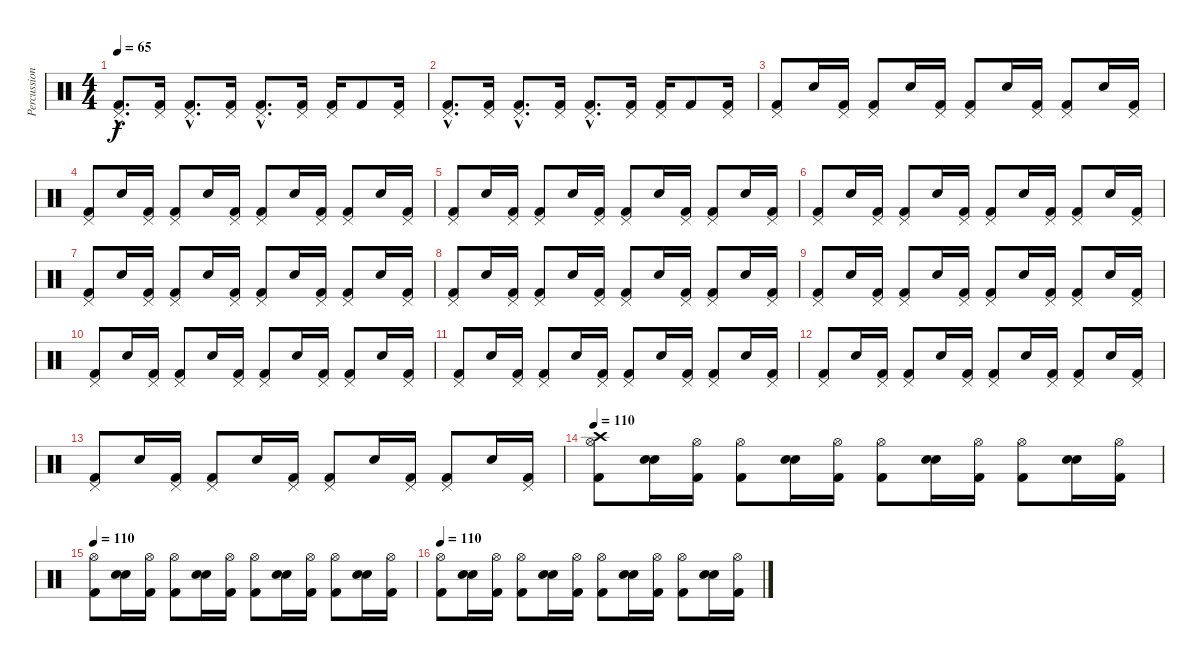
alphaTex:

\track ("Percussions" "Percussion") {instrument percussion}
\staff {score}
\articulation defaults
\ts (4 4)
\tempo 65
\clef neutral
\ks c
("Kick (hit) 2"{hac} "Pedal Hi-Hat (hit)"{hac}).8{d dy f} ("Kick (hit) 2" "Pedal Hi-Hat (hit)").16 ("Kick (hit) 2"{hac} "Pedal Hi-Hat (hit)"{hac}).8{d} ("Kick (hit) 2" "Pedal Hi-Hat (hit)").16 ("Kick (hit) 2"{hac} "Pedal Hi-Hat (hit)"{hac}).8{d} ("Kick (hit) 2" "Pedal Hi-Hat (hit)").16 ("Kick (hit) 2" "Pedal Hi-Hat (hit)").16 "Kick (hit) 2".8 ("Kick (hit) 2" "Pedal Hi-Hat (hit)").16 |
("Kick (hit) 2"{hac} "Pedal Hi-Hat (hit)"{hac}).8{d} ("Kick (hit) 2" "Pedal Hi-Hat (hit)").16 ("Kick (hit) 2"{hac} "Pedal Hi-Hat (hit)"{hac}).8{d} ("Kick (hit) 2" "Pedal Hi-Hat (hit)").16 ("Kick (hit) 2"{hac} "Pedal Hi-Hat (hit)"{hac}).8{d} ("Kick (hit) 2" "Pedal Hi-Hat (hit)").16 ("Kick (hit) 2" "Pedal Hi-Hat (hit)").16 "Kick (hit) 2".8 ("Kick (hit) 2" "Pedal Hi-Hat (hit)").16 |
("Kick (hit) 2" "Pedal Hi-Hat (hit)").8 "Electric Snare (hit)".16 ("Kick (hit) 2" "Pedal Hi-Hat (hit)").16 ("Kick (hit) 2" "Pedal Hi-Hat (hit)").8 "Electric Snare (hit)".16 ("Kick (hit) 2" "Pedal Hi-Hat (hit)").16 ("Kick (hit) 2" "Pedal Hi-Hat (hit)").8 "Electric Snare (hit)".16 ("Kick (hit) 2" "Pedal Hi-Hat (hit)").16 ("Kick (hit) 2" "Pedal Hi-Hat (hit)").8 "Electric Snare (hit)".16 ("Kick (hit) 2" "Pedal Hi-Hat (hit)").16 |
("Kick (hit) 2" "Pedal Hi-Hat (hit)").8 "Electric Snare (hit)".16 ("Kick (hit) 2" "Pedal Hi-Hat (hit)").16 ("Kick (hit) 2" "Pedal Hi-Hat (hit)").8 "Electric Snare (hit)".16 ("Kick (hit) 2" "Pedal Hi-Hat (hit)").16 ("Kick (hit) 2" "Pedal Hi-Hat (hit)").8 "Electric Snare (hit)".16 ("Kick (hit) 2" "Pedal Hi-Hat (hit)").16 ("Kick (hit) 2" "Pedal Hi-Hat (hit)").8 "Electric Snare (hit)".16 ("Kick (hit) 2" "Pedal Hi-Hat (hit)").16 |
("Kick (hit) 2" "Pedal Hi-Hat (hit)").8 "Electric Snare (hit)".16 ("Kick (hit) 2" "Pedal Hi-Hat (hit)").16 ("Kick (hit) 2" "Pedal Hi-Hat (hit)").8 "Electric Snare (hit)".16 ("Kick (hit) 2" "Pedal Hi-Hat (hit)").16 ("Kick (hit) 2" "Pedal Hi-Hat (hit)").8 "Electric Snare (hit)".16 ("Kick (hit) 2" "Pedal Hi-Hat (hit)").16 ("Kick (hit) 2" "Pedal Hi-Hat (hit)").8 "Electric Snare (hit)".16 ("Kick (hit) 2" "Pedal Hi-Hat (hit)").16 |
("Kick (hit) 2" "Pedal Hi-Hat (hit)").8 "Electric Snare (hit)".16 ("Kick (hit) 2" "Pedal Hi-Hat (hit)").16 ("Kick (hit) 2" "Pedal Hi-Hat (hit)").8 "Electric Snare (hit)".16 ("Kick (hit) 2" "Pedal Hi-Hat (hit)").16 ("Kick (hit) 2" "Pedal Hi-Hat (hit)").8 "Electric Snare (hit)".16 ("Kick (hit) 2" "Pedal Hi-Hat (hit)").16 ("Kick (hit) 2" "Pedal Hi-Hat (hit)").8 "Electric Snare (hit)".16 ("Kick (hit) 2" "Pedal Hi-Hat (hit)").16 |
("Kick (hit) 2" "Pedal Hi-Hat (hit)").8 "Electric Snare (hit)".16 ("Kick (hit) 2" "Pedal Hi-Hat (hit)").16 ("Kick (hit) 2" "Pedal Hi-Hat (hit)").8 "Electric Snare (hit)".16 ("Kick (hit) 2" "Pedal Hi-Hat (hit)").16 ("Kick (hit) 2" "Pedal Hi-Hat (hit)").8 "Electric Snare (hit)".16 ("Kick (hit) 2" "Pedal Hi-Hat (hit)").16 ("Kick (hit) 2" "Pedal Hi-Hat (hit)").8 "Electric Snare (hit)".16 ("Kick (hit) 2" "Pedal Hi-Hat (hit)").16 |
("Kick (hit) 2" "Pedal Hi-Hat (hit)").8 "Electric Snare (hit)".16 ("Kick (hit) 2" "Pedal Hi-Hat (hit)").16 ("Kick (hit) 2" "Pedal Hi-Hat (hit)").8 "Electric Snare (hit)".16 ("Kick (hit) 2" "Pedal Hi-Hat (hit)").16 ("Kick (hit) 2" "Pedal Hi-Hat (hit)").8 "Electric Snare (hit)".16 ("Kick (hit) 2" "Pedal Hi-Hat (hit)").16 ("Kick (hit) 2" "Pedal Hi-Hat (hit)").8 "Electric Snare (hit)".16 ("Kick (hit) 2" "Pedal Hi-Hat (hit)").16 |
("Kick (hit) 2" "Pedal Hi-Hat (hit)").8 "Electric Snare (hit)".16 ("Kick (hit) 2" "Pedal Hi-Hat (hit)").16 ("Kick (hit) 2" "Pedal Hi-Hat (hit)").8 "Electric Snare (hit)".16 ("Kick (hit) 2" "Pedal Hi-Hat (hit)").16 ("Kick (hit) 2" "Pedal Hi-Hat (hit)").8 "Electric Snare (hit)".16 ("Kick (hit) 2" "Pedal Hi-Hat (hit)").16 ("Kick (hit) 2" "Pedal Hi-Hat (hit)").8 "Electric Snare (hit)".16 ("Kick (hit) 2" "Pedal Hi-Hat (hit)").16 |
("Kick (hit) 2" "Pedal Hi-Hat (hit)").8 "Electric Snare (hit)".16 ("Kick (hit) 2" "Pedal Hi-Hat (hit)").16 ("Kick (hit) 2" "Pedal Hi-Hat (hit)").8 "Electric Snare (hit)".16 ("Kick (hit) 2" "Pedal Hi-Hat (hit)").16 ("Kick (hit) 2" "Pedal Hi-Hat (hit)").8 "Electric Snare (hit)".16 ("Kick (hit) 2" "Pedal Hi-Hat (hit)").16 ("Kick (hit) 2" "Pedal Hi-Hat (hit)").8 "Electric Snare (hit)".16 ("Kick (hit) 2" "Pedal Hi-Hat (hit)").16 |
("Kick (hit) 2" "Pedal Hi-Hat (hit)").8 "Electric Snare (hit)".16 ("Kick (hit) 2" "Pedal Hi-Hat (hit)").16 ("Kick (hit) 2" "Pedal Hi-Hat (hit)").8 "Electric Snare (hit)".16 ("Kick (hit) 2" "Pedal Hi-Hat (hit)").16 ("Kick (hit) 2" "Pedal Hi-Hat (hit)").8 "Electric Snare (hit)".16 ("Kick (hit) 2" "Pedal Hi-Hat (hit)").16 ("Kick (hit) 2" "Pedal Hi-Hat (hit)").8 "Electric Snare (hit)".16 ("Kick (hit) 2" "Pedal Hi-Hat (hit)").16 |
("Kick (hit) 2" "Pedal Hi-Hat (hit)").8 "Electric Snare (hit)".16 ("Kick (hit) 2" "Pedal Hi-Hat (hit)").16 ("Kick (hit) 2" "Pedal Hi-Hat (hit)").8 "Electric Snare (hit)".16 ("Kick (hit) 2" "Pedal Hi-Hat (hit)").16 ("Kick (hit) 2" "Pedal Hi-Hat (hit)").8 "Electric Snare (hit)".16 ("Kick (hit) 2" "Pedal Hi-Hat (hit)").16 ("Kick (hit) 2" "Pedal Hi-Hat (hit)").8 "Electric Snare (hit)".16 ("Kick (hit) 2" "Pedal Hi-Hat (hit)").16 |
("Kick (hit) 2" "Pedal Hi-Hat (hit)").8 "Electric Snare (hit)".16 ("Kick (hit) 2" "Pedal Hi-Hat (hit)").16 ("Kick (hit) 2" "Pedal Hi-Hat (hit)").8 "Electric Snare (hit)".16 ("Kick (hit) 2" "Pedal Hi-Hat (hit)").16 ("Kick (hit) 2" "Pedal Hi-Hat (hit)").8 "Electric Snare (hit)".16 ("Kick (hit) 2" "Pedal Hi-Hat (hit)").16 ("Kick (hit) 2" "Pedal Hi-Hat (hit)").8 "Electric Snare (hit)".16 ("Kick (hit) 2" "Pedal Hi-Hat (hit)").16 |
\tempo 110
("Kick (hit) 2" "Hi-Hat (open)" "Crash high (hit)").8 ("Snare (hit) 2" "Snare (hit) 2").16 ("Kick (hit) 2" "Hi-Hat (open)").16 ("Kick (hit) 2" "Hi-Hat (open)").8 ("Snare (hit) 2" "Snare (hit) 2").16 ("Kick (hit) 2" "Hi-Hat (open)").16 ("Kick (hit) 2" "Hi-Hat (open)").8 ("Snare (hit) 2" "Snare (hit) 2").16 ("Kick (hit) 2" "Hi-Hat (open)").16 ("Kick (hit) 2" "Hi-Hat (open)").8 ("Snare (hit) 2" "Snare (hit) 2").16 ("Kick (hit) 2" "Hi-Hat (open)").16 |
\tempo 110
("Kick (hit) 2" "Hi-Hat (open)").8 ("Snare (hit) 2" "Snare (hit) 2").16 ("Kick (hit) 2" "Hi-Hat (open)").16 ("Kick (hit) 2" "Hi-Hat (open)").8 ("Snare (hit) 2" "Snare (hit) 2").16 ("Kick (hit) 2" "Hi-Hat (open)").16 ("Kick (hit) 2" "Hi-Hat (open)").8 ("Snare (hit) 2" "Snare (hit) 2").16 ("Kick (hit) 2" "Hi-Hat (open)").16 ("Kick (hit) 2" "Hi-Hat (open)").8 ("Snare (hit) 2" "Snare (hit) 2").16 ("Kick (hit) 2" "Hi-Hat (open)").16 |
\tempo 110
("Kick (hit) 2" "Hi-Hat (open)").8 ("Snare (hit) 2" "Snare (hit) 2").16 ("Kick (hit) 2" "Hi-Hat (open)").16 ("Kick (hit) 2" "Hi-Hat (open)").8 ("Snare (hit) 2" "Snare (hit) 2").16 ("Kick (hit) 2" "Hi-Hat (open)").16 ("Kick (hit) 2" "Hi-Hat (open)").8 ("Snare (hit) 2" "Snare (hit) 2").16 ("Kick (hit) 2" "Hi-Hat (open)").16 ("Kick (hit) 2" "Hi-Hat (open)").8 ("Snare (hit) 2" "Snare (hit) 2").16 ("Kick (hit) 2" "Hi-Hat (open)").16
